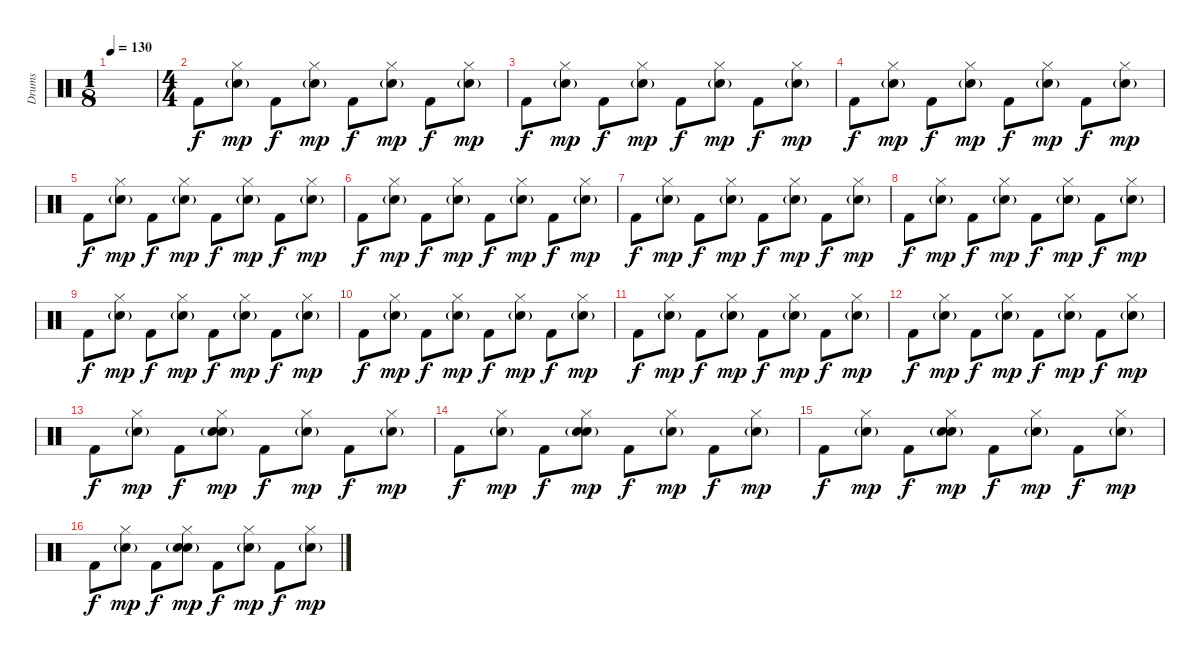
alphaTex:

\track ("Drums" "Drums") {instrument percussion}
\staff {score}
\articulation defaults
\ts (1 8)
\tempo 130
\clef neutral
\ks c
|
\ts (4 4)
"Kick (hit) 2".8 ("Hi-Hat (closed)" "Hand Clap (hit)"{g}).8{dy mp} "Kick (hit) 2".8{dy f} ("Hi-Hat (closed)" "Hand Clap (hit)"{g}).8{dy mp} "Kick (hit) 2".8{dy f} ("Hi-Hat (closed)" "Hand Clap (hit)"{g}).8{dy mp} "Kick (hit) 2".8{dy f} ("Hi-Hat (closed)" "Hand Clap (hit)"{g}).8{dy mp} |
"Kick (hit) 2".8{dy f} ("Hi-Hat (closed)" "Hand Clap (hit)"{g}).8{dy mp} "Kick (hit) 2".8{dy f} ("Hi-Hat (closed)" "Hand Clap (hit)"{g}).8{dy mp} "Kick (hit) 2".8{dy f} ("Hi-Hat (closed)" "Hand Clap (hit)"{g}).8{dy mp} "Kick (hit) 2".8{dy f} ("Hi-Hat (closed)" "Hand Clap (hit)"{g}).8{dy mp} |
"Kick (hit) 2".8{dy f} ("Hi-Hat (closed)" "Hand Clap (hit)"{g}).8{dy mp} "Kick (hit) 2".8{dy f} ("Hi-Hat (closed)" "Hand Clap (hit)"{g}).8{dy mp} "Kick (hit) 2".8{dy f} ("Hi-Hat (closed)" "Hand Clap (hit)"{g}).8{dy mp} "Kick (hit) 2".8{dy f} ("Hi-Hat (closed)" "Hand Clap (hit)"{g}).8{dy mp} |
"Kick (hit) 2".8{dy f} ("Hi-Hat (closed)" "Hand Clap (hit)"{g}).8{dy mp} "Kick (hit) 2".8{dy f} ("Hi-Hat (closed)" "Hand Clap (hit)"{g}).8{dy mp} "Kick (hit) 2".8{dy f} ("Hi-Hat (closed)" "Hand Clap (hit)"{g}).8{dy mp} "Kick (hit) 2".8{dy f} ("Hi-Hat (closed)" "Hand Clap (hit)"{g}).8{dy mp} |
"Kick (hit) 2".8{dy f} ("Hi-Hat (closed)" "Hand Clap (hit)"{g}).8{dy mp} "Kick (hit) 2".8{dy f} ("Hi-Hat (closed)" "Hand Clap (hit)"{g}).8{dy mp} "Kick (hit) 2".8{dy f} ("Hi-Hat (closed)" "Hand Clap (hit)"{g}).8{dy mp} "Kick (hit) 2".8{dy f} ("Hi-Hat (closed)" "Hand Clap (hit)"{g}).8{dy mp} |
"Kick (hit) 2".8{dy f} ("Hi-Hat (closed)" "Hand Clap (hit)"{g}).8{dy mp} "Kick (hit) 2".8{dy f} ("Hi-Hat (closed)" "Hand Clap (hit)"{g}).8{dy mp} "Kick (hit) 2".8{dy f} ("Hi-Hat (closed)" "Hand Clap (hit)"{g}).8{dy mp} "Kick (hit) 2".8{dy f} ("Hi-Hat (closed)" "Hand Clap (hit)"{g}).8{dy mp} |
"Kick (hit) 2".8{dy f} ("Hi-Hat (closed)" "Hand Clap (hit)"{g}).8{dy mp} "Kick (hit) 2".8{dy f} ("Hi-Hat (closed)" "Hand Clap (hit)"{g}).8{dy mp} "Kick (hit) 2".8{dy f} ("Hi-Hat (closed)" "Hand Clap (hit)"{g}).8{dy mp} "Kick (hit) 2".8{dy f} ("Hi-Hat (closed)" "Hand Clap (hit)"{g}).8{dy mp} |
"Kick (hit) 2".8{dy f} ("Hi-Hat (closed)" "Hand Clap (hit)"{g}).8{dy mp} "Kick (hit) 2".8{dy f} ("Hi-Hat (closed)" "Hand Clap (hit)"{g}).8{dy mp} "Kick (hit) 2".8{dy f} ("Hi-Hat (closed)" "Hand Clap (hit)"{g}).8{dy mp} "Kick (hit) 2".8{dy f} ("Hi-Hat (closed)" "Hand Clap (hit)"{g}).8{dy mp} |
"Kick (hit) 2".8{dy f} ("Hi-Hat (closed)" "Hand Clap (hit)"{g}).8{dy mp} "Kick (hit) 2".8{dy f} ("Hi-Hat (closed)" "Hand Clap (hit)"{g}).8{dy mp} "Kick (hit) 2".8{dy f} ("Hi-Hat (closed)" "Hand Clap (hit)"{g}).8{dy mp} "Kick (hit) 2".8{dy f} ("Hi-Hat (closed)" "Hand Clap (hit)"{g}).8{dy mp} |
"Kick (hit) 2".8{dy f} ("Hi-Hat (closed)" "Hand Clap (hit)"{g}).8{dy mp} "Kick (hit) 2".8{dy f} ("Hi-Hat (closed)" "Hand Clap (hit)"{g}).8{dy mp} "Kick (hit) 2".8{dy f} ("Hi-Hat (closed)" "Hand Clap (hit)"{g}).8{dy mp} "Kick (hit) 2".8{dy f} ("Hi-Hat (closed)" "Hand Clap (hit)"{g}).8{dy mp} |
"Kick (hit) 2".8{dy f} ("Hi-Hat (closed)" "Hand Clap (hit)"{g}).8{dy mp} "Kick (hit) 2".8{dy f} ("Hi-Hat (closed)" "Hand Clap (hit)"{g}).8{dy mp} "Kick (hit) 2".8{dy f} ("Hi-Hat (closed)" "Hand Clap (hit)"{g}).8{dy mp} "Kick (hit) 2".8{dy f} ("Hi-Hat (closed)" "Hand Clap (hit)"{g}).8{dy mp} |
"Kick (hit) 2".8{dy f} ("Hi-Hat (closed)" "Hand Clap (hit)"{g}).8{dy mp} "Kick (hit) 2".8{dy f} ("Hi-Hat (closed)" "Hand Clap (hit)"{g} "Electric Snare (hit)").8{dy mp} "Kick (hit) 2".8{dy f} ("Hi-Hat (closed)" "Hand Clap (hit)"{g}).8{dy mp} "Kick (hit) 2".8{dy f} ("Hi-Hat (closed)" "Hand Clap (hit)"{g}).8{dy mp} |
"Kick (hit) 2".8{dy f} ("Hi-Hat (closed)" "Hand Clap (hit)"{g}).8{dy mp} "Kick (hit) 2".8{dy f} ("Hi-Hat (closed)" "Hand Clap (hit)"{g} "Electric Snare (hit)").8{dy mp} "Kick (hit) 2".8{dy f} ("Hi-Hat (closed)" "Hand Clap (hit)"{g}).8{dy mp} "Kick (hit) 2".8{dy f} ("Hi-Hat (closed)" "Hand Clap (hit)"{g}).8{dy mp} |
"Kick (hit) 2".8{dy f} ("Hi-Hat (closed)" "Hand Clap (hit)"{g}).8{dy mp} "Kick (hit) 2".8{dy f} ("Hi-Hat (closed)" "Hand Clap (hit)"{g} "Electric Snare (hit)").8{dy mp} "Kick (hit) 2".8{dy f} ("Hi-Hat (closed)" "Hand Clap (hit)"{g}).8{dy mp} "Kick (hit) 2".8{dy f} ("Hi-Hat (closed)" "Hand Clap (hit)"{g}).8{dy mp} |
"Kick (hit) 2".8{dy f} ("Hi-Hat (closed)" "Hand Clap (hit)"{g}).8{dy mp} "Kick (hit) 2".8{dy f} ("Hi-Hat (closed)" "Hand Clap (hit)"{g} "Electric Snare (hit)").8{dy mp} "Kick (hit) 2".8{dy f} ("Hi-Hat (closed)" "Hand Clap (hit)"{g}).8{dy mp} "Kick (hit) 2".8{dy f} ("Hi-Hat (closed)" "Hand Clap (hit)"{g}).8{dy mp}
